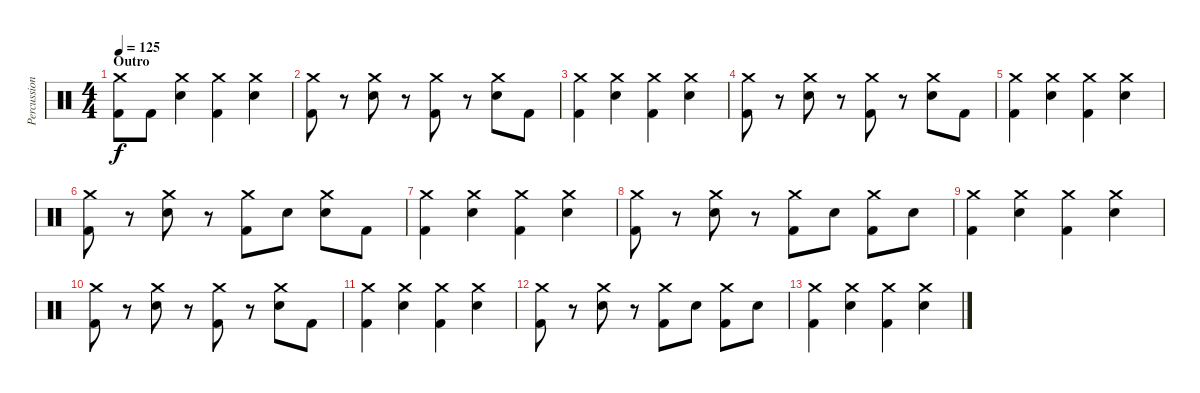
\track ("Percussion" "Percussion") {instrument percussion}
\staff {score}
\articulation defaults
\ts (4 4)
\section ("" "Outro")
\tempo 125
\clef neutral
\ks c
("Crash medium (hit)" "Kick (hit) 2").8{dy f} "Kick (hit) 2".8 ("Crash medium (hit)" "Snare (hit) 2").4 ("Crash medium (hit)" "Kick (hit) 2").4 ("Crash medium (hit)" "Snare (hit) 2").4 |
("Crash medium (hit)" "Kick (hit) 2").8 r.8 ("Crash medium (hit)" "Snare (hit) 2").8 r.8 ("Crash medium (hit)" "Kick (hit) 2").8 r.8 ("Crash medium (hit)" "Snare (hit) 2").8 "Kick (hit) 2".8 |
("Crash medium (hit)" "Kick (hit) 2").4 ("Crash medium (hit)" "Snare (hit) 2").4 ("Crash medium (hit)" "Kick (hit) 2").4 ("Crash medium (hit)" "Snare (hit) 2").4 |
("Crash medium (hit)" "Kick (hit) 2").8 r.8 ("Crash medium (hit)" "Snare (hit) 2").8 r.8 ("Crash medium (hit)" "Kick (hit) 2").8 r.8 ("Crash medium (hit)" "Snare (hit) 2").8 "Kick (hit) 2".8 |
("Crash medium (hit)" "Kick (hit) 2").4 ("Crash medium (hit)" "Snare (hit) 2").4 ("Crash medium (hit)" "Kick (hit) 2").4 ("Crash medium (hit)" "Snare (hit) 2").4 |
("Crash medium (hit)" "Kick (hit) 2").8 r.8 ("Crash medium (hit)" "Snare (hit) 2").8 r.8 ("Crash medium (hit)" "Kick (hit) 2").8 "Snare (hit) 2".8 ("Crash medium (hit)" "Snare (hit) 2").8 "Kick (hit) 2".8 |
("Crash medium (hit)" "Kick (hit) 2").4 ("Crash medium (hit)" "Snare (hit) 2").4 ("Crash medium (hit)" "Kick (hit) 2").4 ("Crash medium (hit)" "Snare (hit) 2").4 |
("Crash medium (hit)" "Kick (hit) 2").8 r.8 ("Crash medium (hit)" "Snare (hit) 2").8 r.8 ("Crash medium (hit)" "Kick (hit) 2").8 "Snare (hit) 2".8 ("Crash medium (hit)" "Kick (hit) 2").8 "Snare (hit) 2".8 |
("Crash medium (hit)" "Kick (hit) 2").4 ("Crash medium (hit)" "Snare (hit) 2").4 ("Crash medium (hit)" "Kick (hit) 2").4 ("Crash medium (hit)" "Snare (hit) 2").4 |
("Crash medium (hit)" "Kick (hit) 2").8 r.8 ("Crash medium (hit)" "Snare (hit) 2").8 r.8 ("Crash medium (hit)" "Kick (hit) 2").8 r.8 ("Crash medium (hit)" "Snare (hit) 2").8 "Kick (hit) 2".8 |
("Crash medium (hit)" "Kick (hit) 2").4 ("Crash medium (hit)" "Snare (hit) 2").4 ("Crash medium (hit)" "Kick (hit) 2").4 ("Crash medium (hit)" "Snare (hit) 2").4 |
("Crash medium (hit)" "Kick (hit) 2").8 r.8 ("Crash medium (hit)" "Snare (hit) 2").8 r.8 ("Crash medium (hit)" "Kick (hit) 2").8 "Snare (hit) 2".8 ("Crash medium (hit)" "Kick (hit) 2").8 "Snare (hit) 2".8 |
("Crash medium (hit)" "Kick (hit) 2").4 ("Crash medium (hit)" "Snare (hit) 2").4 ("Crash medium (hit)" "Kick (hit) 2").4 ("Crash medium (hit)" "Snare (hit) 2").4
